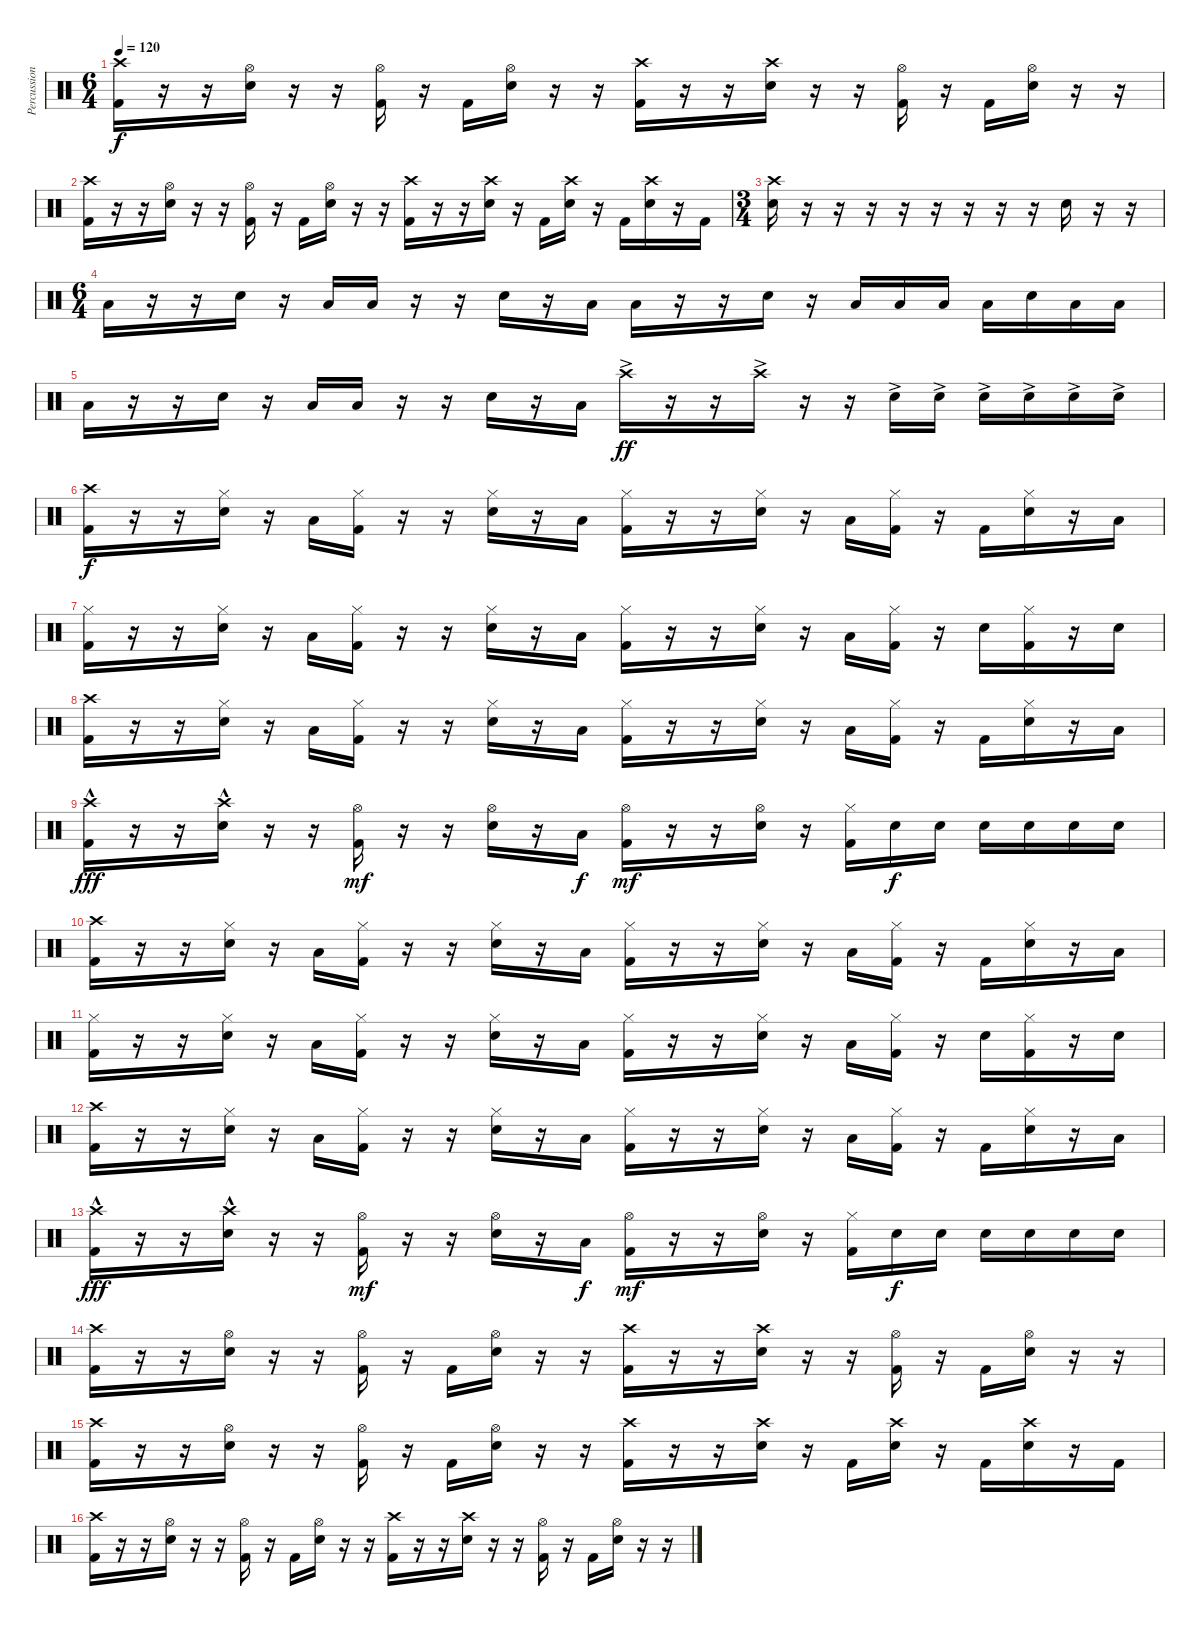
\track ("Percussion" "Percussion") {instrument percussion}
\staff {score}
\articulation defaults
\ts (6 4)
\tempo 120
\clef neutral
\ks c
("Kick (hit) 2" "Crash high (hit)").16{dy f} r.16 r.16 ("Electric Snare (hit)" "Hi-Hat (open)").16 r.16 r.16 ("Kick (hit) 2" "Hi-Hat (open)").16 r.16 "Kick (hit) 2".16 ("Electric Snare (hit)" "Hi-Hat (open)").16 r.16 r.16 ("Kick (hit) 2" "Crash high (hit)").16 r.16 r.16 ("Electric Snare (hit)" "Crash high (hit)").16 r.16 r.16 ("Kick (hit) 2" "Hi-Hat (open)").16 r.16 "Kick (hit) 2".16 ("Electric Snare (hit)" "Hi-Hat (open)").16 r.16 r.16 |
("Kick (hit) 2" "Crash high (hit)").16 r.16 r.16 ("Electric Snare (hit)" "Hi-Hat (open)").16 r.16 r.16 ("Kick (hit) 2" "Hi-Hat (open)").16 r.16 "Kick (hit) 2".16 ("Electric Snare (hit)" "Hi-Hat (open)").16 r.16 r.16 ("Kick (hit) 2" "Crash high (hit)").16 r.16 r.16 ("Electric Snare (hit)" "Crash high (hit)").16 r.16 "Kick (hit) 2".16 ("Electric Snare (hit)" "Crash high (hit)").16 r.16 "Kick (hit) 2".16 ("Electric Snare (hit)" "Crash high (hit)").16 r.16 "Kick (hit) 2".16 |
\ts (3 4)
("Electric Snare (hit)" "Crash high (hit)").16 r.16 r.16 r.16 r.16 r.16 r.16 r.16 r.16 "Electric Snare (hit)".16 r.16 r.16 |
\ts (6 4)
"Low Floor Tom (hit)".16 r.16 r.16 "Electric Snare (hit)".16 r.16 "Low Floor Tom (hit)".16 "Low Floor Tom (hit)".16 r.16 r.16 "Electric Snare (hit)".16 r.16 "Low Floor Tom (hit)".16 "Low Floor Tom (hit)".16 r.16 r.16 "Electric Snare (hit)".16 r.16 "Low Floor Tom (hit)".16 "Low Floor Tom (hit)".16 "Low Floor Tom (hit)".16 "Low Floor Tom (hit)".16 "Electric Snare (hit)".16 "Low Floor Tom (hit)".16 "Low Floor Tom (hit)".16 |
"Low Floor Tom (hit)".16 r.16 r.16 "Electric Snare (hit)".16 r.16 "Low Floor Tom (hit)".16 "Low Floor Tom (hit)".16 r.16 r.16 "Electric Snare (hit)".16 r.16 "Low Floor Tom (hit)".16 "Crash high (hit)"{ac}.16{dy ff} r.16 r.16 "Crash high (hit)"{ac}.16 r.16 r.16 "Electric Snare (hit)"{ac}.16 "Electric Snare (hit)"{ac}.16 "Electric Snare (hit)"{ac}.16 "Electric Snare (hit)"{ac}.16 "Electric Snare (hit)"{ac}.16 "Electric Snare (hit)"{ac}.16 |
("Kick (hit) 2" "Crash high (hit)").16{dy f} r.16 r.16 ("Electric Snare (hit)" "Hi-Hat (closed)").16 r.16 "Low Floor Tom (hit)".16 ("Kick (hit) 2" "Hi-Hat (closed)").16 r.16 r.16 ("Electric Snare (hit)" "Hi-Hat (closed)").16 r.16 "Low Floor Tom (hit)".16 ("Kick (hit) 2" "Hi-Hat (closed)").16 r.16 r.16 ("Electric Snare (hit)" "Hi-Hat (closed)").16 r.16 "Low Floor Tom (hit)".16 ("Kick (hit) 2" "Hi-Hat (closed)").16 r.16 "Kick (hit) 2".16 ("Electric Snare (hit)" "Hi-Hat (closed)").16 r.16 "Low Floor Tom (hit)".16 |
("Kick (hit) 2" "Hi-Hat (closed)").16 r.16 r.16 ("Electric Snare (hit)" "Hi-Hat (closed)").16 r.16 "Low Floor Tom (hit)".16 ("Kick (hit) 2" "Hi-Hat (closed)").16 r.16 r.16 ("Electric Snare (hit)" "Hi-Hat (closed)").16 r.16 "Low Floor Tom (hit)".16 ("Kick (hit) 2" "Hi-Hat (closed)").16 r.16 r.16 ("Electric Snare (hit)" "Hi-Hat (closed)").16 r.16 "Low Floor Tom (hit)".16 ("Kick (hit) 2" "Hi-Hat (closed)").16 r.16 "Electric Snare (hit)".16 ("Kick (hit) 2" "Hi-Hat (closed)").16 r.16 "Electric Snare (hit)".16 |
("Kick (hit) 2" "Crash high (hit)").16 r.16 r.16 ("Electric Snare (hit)" "Hi-Hat (closed)").16 r.16 "Low Floor Tom (hit)".16 ("Kick (hit) 2" "Hi-Hat (closed)").16 r.16 r.16 ("Electric Snare (hit)" "Hi-Hat (closed)").16 r.16 "Low Floor Tom (hit)".16 ("Kick (hit) 2" "Hi-Hat (closed)").16 r.16 r.16 ("Electric Snare (hit)" "Hi-Hat (closed)").16 r.16 "Low Floor Tom (hit)".16 ("Kick (hit) 2" "Hi-Hat (closed)").16 r.16 "Kick (hit) 2".16 ("Electric Snare (hit)" "Hi-Hat (closed)").16 r.16 "Low Floor Tom (hit)".16 |
("Kick (hit) 2" "Crash high (hit)"{hac}).16{dy fff} r.16 r.16 ("Electric Snare (hit)" "Crash high (hit)"{hac}).16 r.16 r.16 ("Kick (hit) 2" "Hi-Hat (open)").16{dy mf} r.16 r.16 ("Electric Snare (hit)" "Hi-Hat (open)").16 r.16 "Low Floor Tom (hit)".16{dy f} ("Kick (hit) 2" "Hi-Hat (open)").16{dy mf} r.16 r.16 ("Electric Snare (hit)" "Hi-Hat (open)").16 r.16 ("Kick (hit) 2" "Hi-Hat (closed)").16 "Electric Snare (hit)".16{dy f} "Electric Snare (hit)".16 "Electric Snare (hit)".16 "Electric Snare (hit)".16 "Electric Snare (hit)".16 "Electric Snare (hit)".16 |
("Kick (hit) 2" "Crash high (hit)").16 r.16 r.16 ("Electric Snare (hit)" "Hi-Hat (closed)").16 r.16 "Low Floor Tom (hit)".16 ("Kick (hit) 2" "Hi-Hat (closed)").16 r.16 r.16 ("Electric Snare (hit)" "Hi-Hat (closed)").16 r.16 "Low Floor Tom (hit)".16 ("Kick (hit) 2" "Hi-Hat (closed)").16 r.16 r.16 ("Electric Snare (hit)" "Hi-Hat (closed)").16 r.16 "Low Floor Tom (hit)".16 ("Kick (hit) 2" "Hi-Hat (closed)").16 r.16 "Kick (hit) 2".16 ("Electric Snare (hit)" "Hi-Hat (closed)").16 r.16 "Low Floor Tom (hit)".16 |
("Kick (hit) 2" "Hi-Hat (closed)").16 r.16 r.16 ("Electric Snare (hit)" "Hi-Hat (closed)").16 r.16 "Low Floor Tom (hit)".16 ("Kick (hit) 2" "Hi-Hat (closed)").16 r.16 r.16 ("Electric Snare (hit)" "Hi-Hat (closed)").16 r.16 "Low Floor Tom (hit)".16 ("Kick (hit) 2" "Hi-Hat (closed)").16 r.16 r.16 ("Electric Snare (hit)" "Hi-Hat (closed)").16 r.16 "Low Floor Tom (hit)".16 ("Kick (hit) 2" "Hi-Hat (closed)").16 r.16 "Electric Snare (hit)".16 ("Kick (hit) 2" "Hi-Hat (closed)").16 r.16 "Electric Snare (hit)".16 |
("Kick (hit) 2" "Crash high (hit)").16 r.16 r.16 ("Electric Snare (hit)" "Hi-Hat (closed)").16 r.16 "Low Floor Tom (hit)".16 ("Kick (hit) 2" "Hi-Hat (closed)").16 r.16 r.16 ("Electric Snare (hit)" "Hi-Hat (closed)").16 r.16 "Low Floor Tom (hit)".16 ("Kick (hit) 2" "Hi-Hat (closed)").16 r.16 r.16 ("Electric Snare (hit)" "Hi-Hat (closed)").16 r.16 "Low Floor Tom (hit)".16 ("Kick (hit) 2" "Hi-Hat (closed)").16 r.16 "Kick (hit) 2".16 ("Electric Snare (hit)" "Hi-Hat (closed)").16 r.16 "Low Floor Tom (hit)".16 |
("Kick (hit) 2" "Crash high (hit)"{hac}).16{dy fff} r.16 r.16 ("Electric Snare (hit)" "Crash high (hit)"{hac}).16 r.16 r.16 ("Kick (hit) 2" "Hi-Hat (open)").16{dy mf} r.16 r.16 ("Electric Snare (hit)" "Hi-Hat (open)").16 r.16 "Low Floor Tom (hit)".16{dy f} ("Kick (hit) 2" "Hi-Hat (open)").16{dy mf} r.16 r.16 ("Electric Snare (hit)" "Hi-Hat (open)").16 r.16 ("Kick (hit) 2" "Hi-Hat (closed)").16 "Electric Snare (hit)".16{dy f} "Electric Snare (hit)".16 "Electric Snare (hit)".16 "Electric Snare (hit)".16 "Electric Snare (hit)".16 "Electric Snare (hit)".16 |
("Kick (hit) 2" "Crash high (hit)").16 r.16 r.16 ("Electric Snare (hit)" "Hi-Hat (open)").16 r.16 r.16 ("Kick (hit) 2" "Hi-Hat (open)").16 r.16 "Kick (hit) 2".16 ("Electric Snare (hit)" "Hi-Hat (open)").16 r.16 r.16 ("Kick (hit) 2" "Crash high (hit)").16 r.16 r.16 ("Electric Snare (hit)" "Crash high (hit)").16 r.16 r.16 ("Kick (hit) 2" "Hi-Hat (open)").16 r.16 "Kick (hit) 2".16 ("Electric Snare (hit)" "Hi-Hat (open)").16 r.16 r.16 |
("Kick (hit) 2" "Crash high (hit)").16 r.16 r.16 ("Electric Snare (hit)" "Hi-Hat (open)").16 r.16 r.16 ("Kick (hit) 2" "Hi-Hat (open)").16 r.16 "Kick (hit) 2".16 ("Electric Snare (hit)" "Hi-Hat (open)").16 r.16 r.16 ("Kick (hit) 2" "Crash high (hit)").16 r.16 r.16 ("Electric Snare (hit)" "Crash high (hit)").16 r.16 "Kick (hit) 2".16 ("Electric Snare (hit)" "Crash high (hit)").16 r.16 "Kick (hit) 2".16 ("Electric Snare (hit)" "Crash high (hit)").16 r.16 "Kick (hit) 2".16 |
("Kick (hit) 2" "Crash high (hit)").16 r.16 r.16 ("Electric Snare (hit)" "Hi-Hat (open)").16 r.16 r.16 ("Kick (hit) 2" "Hi-Hat (open)").16 r.16 "Kick (hit) 2".16 ("Electric Snare (hit)" "Hi-Hat (open)").16 r.16 r.16 ("Kick (hit) 2" "Crash high (hit)").16 r.16 r.16 ("Electric Snare (hit)" "Crash high (hit)").16 r.16 r.16 ("Kick (hit) 2" "Hi-Hat (open)").16 r.16 "Kick (hit) 2".16 ("Electric Snare (hit)" "Hi-Hat (open)").16 r.16 r.16
